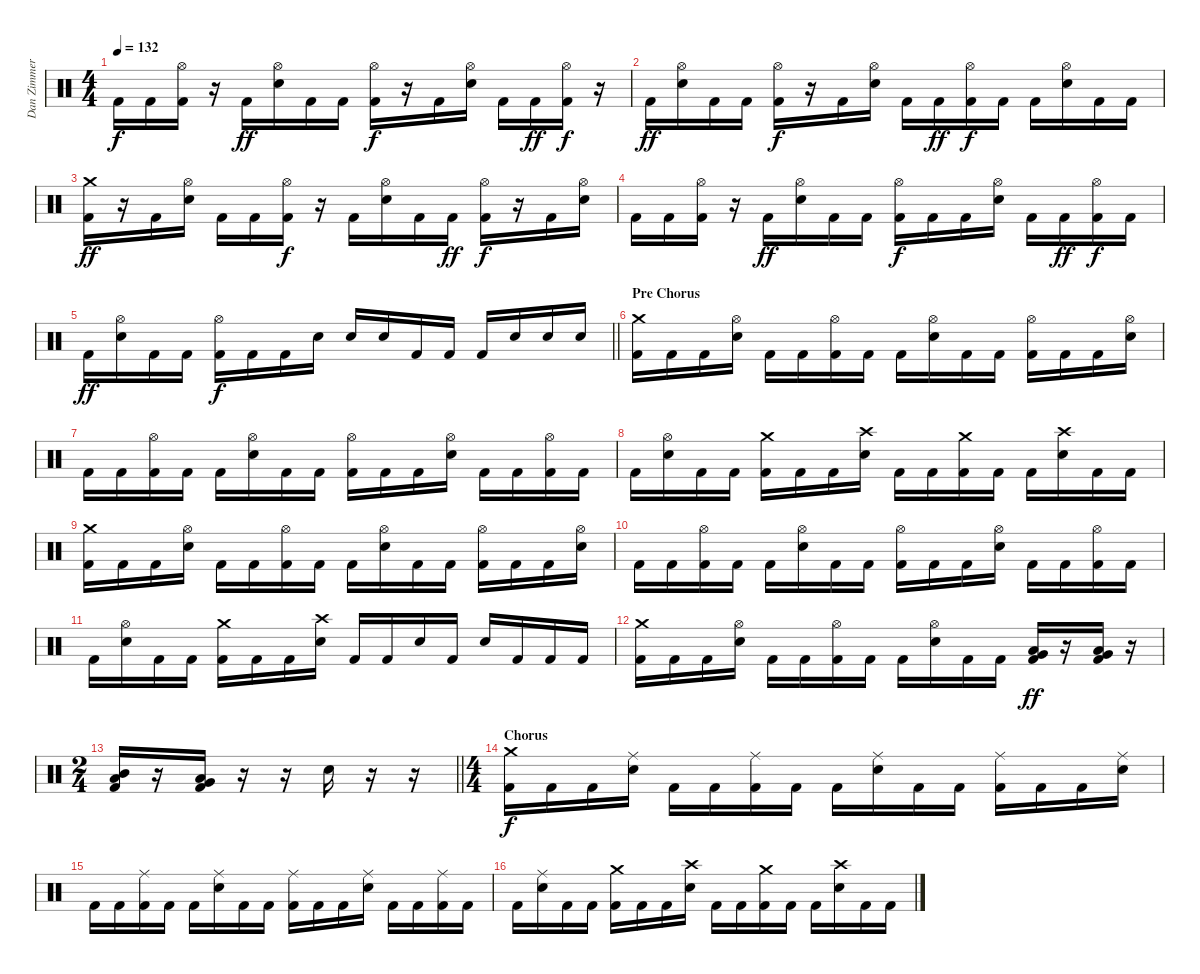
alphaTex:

\track ("Dan Zimmermann" "Dan Zimmer") {instrument percussion}
\staff {score}
\articulation defaults
\ts (4 4)
\tempo 132
\clef neutral
\ks c "Kick (hit) 2".16{dy f} "Kick (hit) 2".16
("Hi-Hat (open)" "Kick (hit) 2").16 r.16 "Kick (hit) 2".16{dy ff} ("Hi-Hat (open)" "Electric Snare (hit)").16 "Kick (hit) 2".16 "Kick (hit) 2".16 ("Hi-Hat (open)" "Kick (hit) 2").16{dy f} r.16 "Kick (hit) 2".16 ("Hi-Hat (open)" "Electric Snare (hit)").16 "Kick (hit) 2".16 "Kick (hit) 2".16{dy ff} ("Hi-Hat (open)" "Kick (hit) 2").16{dy f} r.16 |
"Kick (hit) 2".16{dy ff} ("Hi-Hat (open)" "Electric Snare (hit)").16 "Kick (hit) 2".16 "Kick (hit) 2".16 ("Hi-Hat (open)" "Kick (hit) 2").16{dy f} r.16 "Kick (hit) 2".16 ("Hi-Hat (open)" "Electric Snare (hit)").16 "Kick (hit) 2".16 "Kick (hit) 2".16{dy ff} ("Hi-Hat (open)" "Kick (hit) 2").16{dy f} "Kick (hit) 2".16 "Kick (hit) 2".16 ("Hi-Hat (open)" "Electric Snare (hit)").16 "Kick (hit) 2".16 "Kick (hit) 2".16 |
("Crash medium (hit)" "Kick (hit) 2").16{dy ff} r.16 "Kick (hit) 2".16 ("Hi-Hat (open)" "Electric Snare (hit)").16 "Kick (hit) 2".16 "Kick (hit) 2".16 ("Hi-Hat (open)" "Kick (hit) 2").16{dy f} r.16 "Kick (hit) 2".16 ("Hi-Hat (open)" "Electric Snare (hit)").16 "Kick (hit) 2".16 "Kick (hit) 2".16{dy ff} ("Hi-Hat (open)" "Kick (hit) 2").16{dy f} r.16 "Kick (hit) 2".16 ("Hi-Hat (open)" "Electric Snare (hit)").16 |
"Kick (hit) 2".16 "Kick (hit) 2".16 ("Hi-Hat (open)" "Kick (hit) 2").16 r.16 "Kick (hit) 2".16{dy ff} ("Hi-Hat (open)" "Electric Snare (hit)").16 "Kick (hit) 2".16 "Kick (hit) 2".16 ("Hi-Hat (open)" "Kick (hit) 2").16{dy f} "Kick (hit) 2".16 "Kick (hit) 2".16 ("Hi-Hat (open)" "Electric Snare (hit)").16 "Kick (hit) 2".16 "Kick (hit) 2".16{dy ff} ("Hi-Hat (open)" "Kick (hit) 2").16{dy f} "Kick (hit) 2".16 |
\barLineRight lightlight "Kick (hit) 2".16{dy ff}
("Hi-Hat (open)" "Electric Snare (hit)").16 "Kick (hit) 2".16 "Kick (hit) 2".16 ("Hi-Hat (open)" "Kick (hit) 2").16{dy f} "Kick (hit) 2".16 "Kick (hit) 2".16 "Electric Snare (hit)".16 "Electric Snare (hit)".16 "Electric Snare (hit)".16 "Kick (hit) 2".16 "Kick (hit) 2".16 "Kick (hit) 2".16 "Electric Snare (hit)".16 "Electric Snare (hit)".16 "Electric Snare (hit)".16 |
\section ("" "Pre Chorus")
("Crash medium (hit)" "Kick (hit) 2").16 "Kick (hit) 2".16 "Kick (hit) 2".16 ("Hi-Hat (open)" "Electric Snare (hit)").16 "Kick (hit) 2".16 "Kick (hit) 2".16 ("Hi-Hat (open)" "Kick (hit) 2").16 "Kick (hit) 2".16 "Kick (hit) 2".16 ("Hi-Hat (open)" "Electric Snare (hit)").16 "Kick (hit) 2".16 "Kick (hit) 2".16 ("Hi-Hat (open)" "Kick (hit) 2").16 "Kick (hit) 2".16 "Kick (hit) 2".16 ("Hi-Hat (open)" "Electric Snare (hit)").16 |
"Kick (hit) 2".16 "Kick (hit) 2".16 ("Hi-Hat (open)" "Kick (hit) 2").16 "Kick (hit) 2".16 "Kick (hit) 2".16 ("Hi-Hat (open)" "Electric Snare (hit)").16 "Kick (hit) 2".16 "Kick (hit) 2".16 ("Hi-Hat (open)" "Kick (hit) 2").16 "Kick (hit) 2".16 "Kick (hit) 2".16 ("Hi-Hat (open)" "Electric Snare (hit)").16 "Kick (hit) 2".16 "Kick (hit) 2".16 ("Hi-Hat (open)" "Kick (hit) 2").16 "Kick (hit) 2".16 |
"Kick (hit) 2".16 ("Hi-Hat (open)" "Electric Snare (hit)").16 "Kick (hit) 2".16 "Kick (hit) 2".16 ("Crash medium (hit)" "Kick (hit) 2").16 "Kick (hit) 2".16 "Kick (hit) 2".16 ("Crash high (hit)" "Electric Snare (hit)").16 "Kick (hit) 2".16 "Kick (hit) 2".16 ("Crash medium (hit)" "Kick (hit) 2").16 "Kick (hit) 2".16 "Kick (hit) 2".16 ("Crash high (hit)" "Electric Snare (hit)").16 "Kick (hit) 2".16 "Kick (hit) 2".16 |
("Crash medium (hit)" "Kick (hit) 2").16 "Kick (hit) 2".16 "Kick (hit) 2".16 ("Hi-Hat (open)" "Electric Snare (hit)").16 "Kick (hit) 2".16 "Kick (hit) 2".16 ("Hi-Hat (open)" "Kick (hit) 2").16 "Kick (hit) 2".16 "Kick (hit) 2".16 ("Hi-Hat (open)" "Electric Snare (hit)").16 "Kick (hit) 2".16 "Kick (hit) 2".16 ("Hi-Hat (open)" "Kick (hit) 2").16 "Kick (hit) 2".16 "Kick (hit) 2".16 ("Hi-Hat (open)" "Electric Snare (hit)").16 |
"Kick (hit) 2".16 "Kick (hit) 2".16 ("Hi-Hat (open)" "Kick (hit) 2").16 "Kick (hit) 2".16 "Kick (hit) 2".16 ("Hi-Hat (open)" "Electric Snare (hit)").16 "Kick (hit) 2".16 "Kick (hit) 2".16 ("Hi-Hat (open)" "Kick (hit) 2").16 "Kick (hit) 2".16 "Kick (hit) 2".16 ("Hi-Hat (open)" "Electric Snare (hit)").16 "Kick (hit) 2".16 "Kick (hit) 2".16 ("Hi-Hat (open)" "Kick (hit) 2").16 "Kick (hit) 2".16 |
"Kick (hit) 2".16 ("Hi-Hat (open)" "Electric Snare (hit)").16 "Kick (hit) 2".16 "Kick (hit) 2".16 ("Crash medium (hit)" "Kick (hit) 2").16 "Kick (hit) 2".16 "Kick (hit) 2".16 ("Crash high (hit)" "Electric Snare (hit)").16 "Kick (hit) 2".16 "Kick (hit) 2".16 "Electric Snare (hit)".16 "Kick (hit) 2".16 "Electric Snare (hit)".16 "Kick (hit) 2".16 "Kick (hit) 2".16 "Kick (hit) 2".16 |
("Crash medium (hit)" "Kick (hit) 2").16 "Kick (hit) 2".16 "Kick (hit) 2".16 ("Hi-Hat (open)" "Electric Snare (hit)").16 "Kick (hit) 2".16 "Kick (hit) 2".16 ("Hi-Hat (open)" "Kick (hit) 2").16 "Kick (hit) 2".16 "Kick (hit) 2".16 ("Hi-Hat (open)" "Electric Snare (hit)").16 "Kick (hit) 2".16 "Kick (hit) 2".16 ("Low Floor Tom (hit)" "Very Low Tom (hit)" "Kick (hit) 2").16{dy ff} r.16 ("Low Tom (hit)" "Very Low Tom (hit)" "Kick (hit) 2").16 r.16 |
\ts (2 4)
\barLineRight lightlight
("Low Tom (hit)" "Mid Tom (hit)" "Kick (hit) 2").16 r.16 ("Low Floor Tom (hit)" "Very Low Tom (hit)" "Kick (hit) 2").16 r.16 r.16 "Electric Snare (hit)".16 r.16 r.16 |
\ts (4 4)
\section ("" "Chorus")
("Crash medium (hit)" "Kick (hit) 2").16{dy f} "Kick (hit) 2".16 "Kick (hit) 2".16 ("Ride (middle)" "Electric Snare (hit)").16 "Kick (hit) 2".16 "Kick (hit) 2".16 ("Ride (middle)" "Kick (hit) 2").16 "Kick (hit) 2".16 "Kick (hit) 2".16 ("Ride (middle)" "Electric Snare (hit)").16 "Kick (hit) 2".16 "Kick (hit) 2".16 ("Ride (middle)" "Kick (hit) 2").16 "Kick (hit) 2".16 "Kick (hit) 2".16 ("Ride (middle)" "Electric Snare (hit)").16 |
"Kick (hit) 2".16 "Kick (hit) 2".16 ("Ride (middle)" "Kick (hit) 2").16 "Kick (hit) 2".16 "Kick (hit) 2".16 ("Ride (middle)" "Electric Snare (hit)").16 "Kick (hit) 2".16 "Kick (hit) 2".16 ("Ride (middle)" "Kick (hit) 2").16 "Kick (hit) 2".16 "Kick (hit) 2".16 ("Ride (middle)" "Electric Snare (hit)").16 "Kick (hit) 2".16 "Kick (hit) 2".16 ("Ride (middle)" "Kick (hit) 2").16 "Kick (hit) 2".16 |
"Kick (hit) 2".16 ("Ride (middle)" "Electric Snare (hit)").16 "Kick (hit) 2".16 "Kick (hit) 2".16 ("Crash medium (hit)" "Kick (hit) 2").16 "Kick (hit) 2".16 "Kick (hit) 2".16 ("Crash high (hit)" "Electric Snare (hit)").16 "Kick (hit) 2".16 "Kick (hit) 2".16 ("Crash medium (hit)" "Kick (hit) 2").16 "Kick (hit) 2".16 "Kick (hit) 2".16 ("Crash high (hit)" "Electric Snare (hit)").16 "Kick (hit) 2".16 "Kick (hit) 2".16
